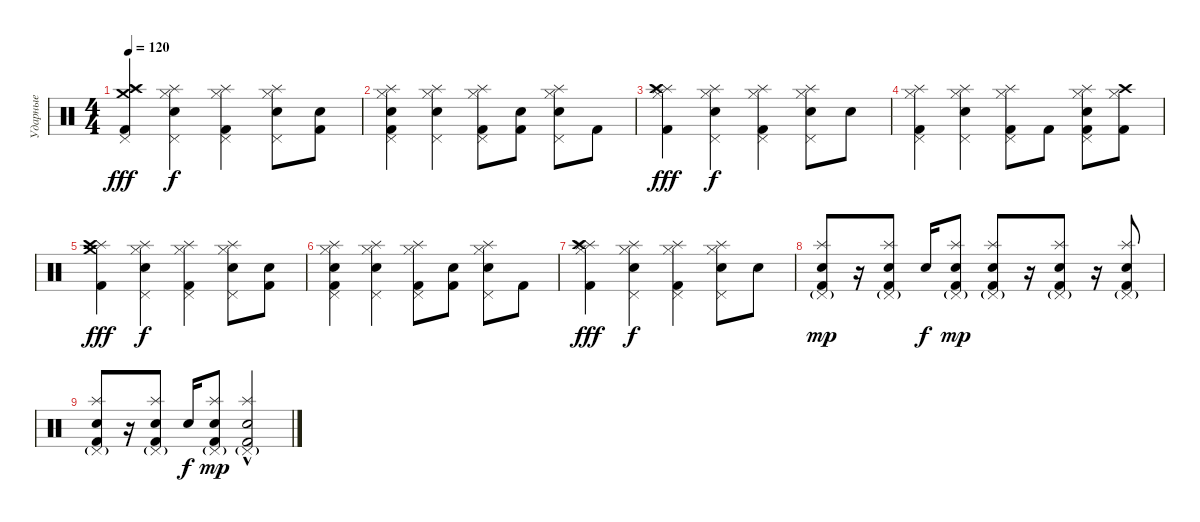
\track ("Ударные" "Ударные") {instrument percussion bank 2}
\staff {score}
\articulation defaults
\ts (4 4)
\tempo 120
\clef neutral
\ks c
("Kick (hit) 2" "Splash (hit)" "Crash medium (hit)" "Crash high (hit)" "Pedal Hi-Hat (hit)").4{dy fff} ("Snare (hit) 2" "Pedal Hi-Hat (hit)" "Hi-Hat (closed)" "Splash (hit)").4{dy f} ("Kick (hit) 2" "Pedal Hi-Hat (hit)" "Hi-Hat (closed)" "Splash (hit)").4 ("Snare (hit) 2" "Pedal Hi-Hat (hit)" "Hi-Hat (closed)" "Splash (hit)").8 ("Kick (hit) 2" "Snare (hit)").8 |
("Kick (hit) 2" "Snare (hit)" "Pedal Hi-Hat (hit)" "Hi-Hat (closed)" "Splash (hit)").4 ("Snare (hit) 2" "Pedal Hi-Hat (hit)" "Hi-Hat (closed)" "Splash (hit)").4 ("Kick (hit) 2" "Pedal Hi-Hat (hit)" "Hi-Hat (closed)" "Splash (hit)").8 ("Kick (hit) 2" "Snare (hit)").8 ("Snare (hit) 2" "Pedal Hi-Hat (hit)" "Hi-Hat (closed)" "Splash (hit)").8 "Kick (hit) 2".8 |
("Kick (hit) 2" "Splash (hit)" "Crash high (hit)" "Hi-Hat (closed)" "Splash (hit)").4{dy fff} ("Snare (hit) 2" "Pedal Hi-Hat (hit)" "Hi-Hat (closed)" "Splash (hit)").4{dy f} ("Kick (hit) 2" "Pedal Hi-Hat (hit)" "Splash (hit)" "Hi-Hat (closed)").4 ("Snare (hit) 2" "Pedal Hi-Hat (hit)" "Hi-Hat (closed)" "Splash (hit)").8 "Snare (hit)".8 |
("Kick (hit) 2" "Pedal Hi-Hat (hit)" "Hi-Hat (closed)" "Splash (hit)").4 ("Snare (hit) 2" "Pedal Hi-Hat (hit)" "Hi-Hat (closed)" "Splash (hit)").4 ("Kick (hit) 2" "Pedal Hi-Hat (hit)" "Hi-Hat (closed)" "Splash (hit)").8 "Kick (hit) 2".8 ("Snare (hit) 2" "Kick (hit) 2" "Pedal Hi-Hat (hit)" "Hi-Hat (closed)" "Splash (hit)").8 ("Kick (hit) 2" "Hi-Hat (closed)" "Crash high (hit)").8 |
("Kick (hit) 2" "Splash (hit)" "Crash medium (hit)" "Crash high (hit)").4{dy fff} ("Snare (hit) 2" "Pedal Hi-Hat (hit)" "Hi-Hat (closed)" "Splash (hit)").4{dy f} ("Kick (hit) 2" "Pedal Hi-Hat (hit)" "Hi-Hat (closed)" "Splash (hit)").4 ("Snare (hit) 2" "Pedal Hi-Hat (hit)" "Hi-Hat (closed)" "Splash (hit)").8 ("Kick (hit) 2" "Snare (hit)").8 |
("Kick (hit) 2" "Snare (hit)" "Pedal Hi-Hat (hit)" "Hi-Hat (closed)" "Splash (hit)").4 ("Snare (hit) 2" "Pedal Hi-Hat (hit)" "Hi-Hat (closed)" "Splash (hit)").4 ("Kick (hit) 2" "Pedal Hi-Hat (hit)" "Hi-Hat (closed)" "Splash (hit)").8 ("Kick (hit) 2" "Snare (hit)").8 ("Snare (hit) 2" "Pedal Hi-Hat (hit)" "Hi-Hat (closed)" "Splash (hit)").8 "Kick (hit) 2".8 |
("Kick (hit) 2" "Splash (hit)" "Crash high (hit)" "Hi-Hat (closed)" "Splash (hit)").4{dy fff} ("Snare (hit) 2" "Pedal Hi-Hat (hit)" "Hi-Hat (closed)" "Splash (hit)").4{dy f} ("Kick (hit) 2" "Pedal Hi-Hat (hit)" "Splash (hit)" "Hi-Hat (closed)").4 ("Snare (hit) 2" "Pedal Hi-Hat (hit)" "Hi-Hat (closed)" "Splash (hit)").8 "Snare (hit)".8 |
("Kick (hit) 2" "Snare (hit) 2" "Splash (hit)" "Pedal Hi-Hat (hit)"{g}).8{dy mp} r.16 ("Kick (hit) 2" "Snare (hit) 2" "Splash (hit)" "Pedal Hi-Hat (hit)"{g}).8 "Snare (hit)".16{dy f} ("Kick (hit) 2" "Snare (hit) 2" "Splash (hit)" "Pedal Hi-Hat (hit)"{g}).8{dy mp} ("Kick (hit) 2" "Snare (hit) 2" "Splash (hit)" "Pedal Hi-Hat (hit)"{g}).8 r.16 ("Kick (hit) 2" "Snare (hit) 2" "Splash (hit)" "Pedal Hi-Hat (hit)"{g}).8 r.16 ("Kick (hit) 2" "Snare (hit) 2" "Splash (hit)" "Pedal Hi-Hat (hit)"{g}).8 |
("Kick (hit) 2" "Snare (hit) 2" "Splash (hit)" "Pedal Hi-Hat (hit)"{g}).8 r.16 ("Kick (hit) 2" "Snare (hit) 2" "Splash (hit)" "Pedal Hi-Hat (hit)"{g}).8 "Snare (hit)".16{dy f} ("Kick (hit) 2" "Snare (hit) 2" "Splash (hit)" "Pedal Hi-Hat (hit)"{g}).8{dy mp} ("Kick (hit) 2" "Snare (hit) 2" "Splash (hit)"{hac} "Pedal Hi-Hat (hit)"{g}).2
